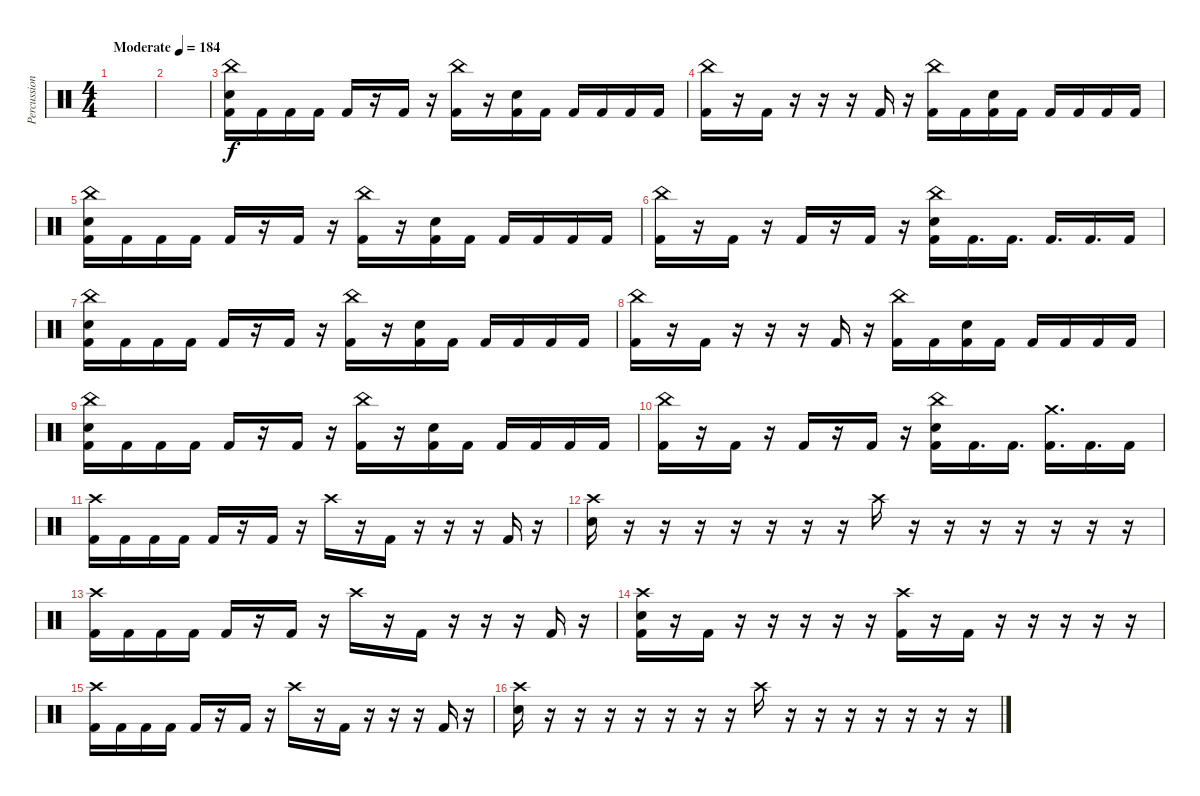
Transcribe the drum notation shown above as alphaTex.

\track ("Percussion" "Percussion") {instrument percussion}
\staff {score}
\articulation defaults
\ts (4 4)
\tempo (184 "Moderate")
\clef neutral
\ks c
|
|
("China (hit)" "Snare (hit) 2" "Kick (hit) 2").16 "Kick (hit) 2".16 "Kick (hit) 2".16 "Kick (hit) 2".16 "Kick (hit) 2".16 r.16 "Kick (hit) 2".16 r.16 ("China (hit)" "Kick (hit) 2").16 r.16 ("Snare (hit) 2" "Kick (hit) 2").16 "Kick (hit) 2".16 "Kick (hit) 2".16 "Kick (hit) 2".16 "Kick (hit) 2".16 "Kick (hit) 2".16 |
("China (hit)" "Kick (hit) 2").16 r.16 "Kick (hit) 2".16 r.16 r.16 r.16 "Kick (hit) 2".16 r.16 ("China (hit)" "Kick (hit) 2").16 "Kick (hit) 2".16 ("Snare (hit) 2" "Kick (hit) 2").16 "Kick (hit) 2".16 "Kick (hit) 2".16 "Kick (hit) 2".16 "Kick (hit) 2".16 "Kick (hit) 2".16 |
("China (hit)" "Snare (hit) 2" "Kick (hit) 2").16 "Kick (hit) 2".16 "Kick (hit) 2".16 "Kick (hit) 2".16 "Kick (hit) 2".16 r.16 "Kick (hit) 2".16 r.16 ("China (hit)" "Kick (hit) 2").16 r.16 ("Snare (hit) 2" "Kick (hit) 2").16 "Kick (hit) 2".16 "Kick (hit) 2".16 "Kick (hit) 2".16 "Kick (hit) 2".16 "Kick (hit) 2".16 |
("China (hit)" "Kick (hit) 2").16 r.16 "Kick (hit) 2".16 r.16 "Kick (hit) 2".16 r.16 "Kick (hit) 2".16 r.16 ("China (hit)" "Snare (hit) 2" "Kick (hit) 2").16 "Kick (hit) 2".16{d} "Kick (hit) 2".16{d} "Kick (hit) 2".16{d} "Kick (hit) 2".16{d} "Kick (hit) 2".16 |
("China (hit)" "Snare (hit) 2" "Kick (hit) 2").16 "Kick (hit) 2".16 "Kick (hit) 2".16 "Kick (hit) 2".16 "Kick (hit) 2".16 r.16 "Kick (hit) 2".16 r.16 ("China (hit)" "Kick (hit) 2").16 r.16 ("Snare (hit) 2" "Kick (hit) 2").16 "Kick (hit) 2".16 "Kick (hit) 2".16 "Kick (hit) 2".16 "Kick (hit) 2".16 "Kick (hit) 2".16 |
("China (hit)" "Kick (hit) 2").16 r.16 "Kick (hit) 2".16 r.16 r.16 r.16 "Kick (hit) 2".16 r.16 ("China (hit)" "Kick (hit) 2").16 "Kick (hit) 2".16 ("Snare (hit) 2" "Kick (hit) 2").16 "Kick (hit) 2".16 "Kick (hit) 2".16 "Kick (hit) 2".16 "Kick (hit) 2".16 "Kick (hit) 2".16 |
("China (hit)" "Snare (hit) 2" "Kick (hit) 2").16 "Kick (hit) 2".16 "Kick (hit) 2".16 "Kick (hit) 2".16 "Kick (hit) 2".16 r.16 "Kick (hit) 2".16 r.16 ("China (hit)" "Kick (hit) 2").16 r.16 ("Snare (hit) 2" "Kick (hit) 2").16 "Kick (hit) 2".16 "Kick (hit) 2".16 "Kick (hit) 2".16 "Kick (hit) 2".16 "Kick (hit) 2".16 |
("China (hit)" "Kick (hit) 2").16 r.16 "Kick (hit) 2".16 r.16 "Kick (hit) 2".16 r.16 "Kick (hit) 2".16 r.16 ("China (hit)" "Snare (hit) 2" "Kick (hit) 2").16 "Kick (hit) 2".16{d} "Kick (hit) 2".16{d} ("Crash medium (hit)" "Kick (hit) 2").16{d} "Kick (hit) 2".16{d} "Kick (hit) 2".16 |
("Crash high (hit)" "Kick (hit) 2").16 "Kick (hit) 2".16 "Kick (hit) 2".16 "Kick (hit) 2".16 "Kick (hit) 2".16 r.16 "Kick (hit) 2".16 r.16 "Crash high (hit)".16 r.16 "Kick (hit) 2".16 r.16 r.16 r.16 "Kick (hit) 2".16 r.16 |
("Crash high (hit)" "Snare (hit) 2").16 r.16 r.16 r.16 r.16 r.16 r.16 r.16 "Crash high (hit)".16 r.16 r.16 r.16 r.16 r.16 r.16 r.16 |
("Crash high (hit)" "Kick (hit) 2").16 "Kick (hit) 2".16 "Kick (hit) 2".16 "Kick (hit) 2".16 "Kick (hit) 2".16 r.16 "Kick (hit) 2".16 r.16 "Crash high (hit)".16 r.16 "Kick (hit) 2".16 r.16 r.16 r.16 "Kick (hit) 2".16 r.16 |
("Crash high (hit)" "Snare (hit) 2" "Kick (hit) 2").16 r.16 "Kick (hit) 2".16 r.16 r.16 r.16 r.16 r.16 ("Crash high (hit)" "Kick (hit) 2").16 r.16 "Kick (hit) 2".16 r.16 r.16 r.16 r.16 r.16 |
("Crash high (hit)" "Kick (hit) 2").16 "Kick (hit) 2".16 "Kick (hit) 2".16 "Kick (hit) 2".16 "Kick (hit) 2".16 r.16 "Kick (hit) 2".16 r.16 "Crash high (hit)".16 r.16 "Kick (hit) 2".16 r.16 r.16 r.16 "Kick (hit) 2".16 r.16 |
("Crash high (hit)" "Snare (hit) 2").16 r.16 r.16 r.16 r.16 r.16 r.16 r.16 "Crash high (hit)".16 r.16 r.16 r.16 r.16 r.16 r.16 r.16
